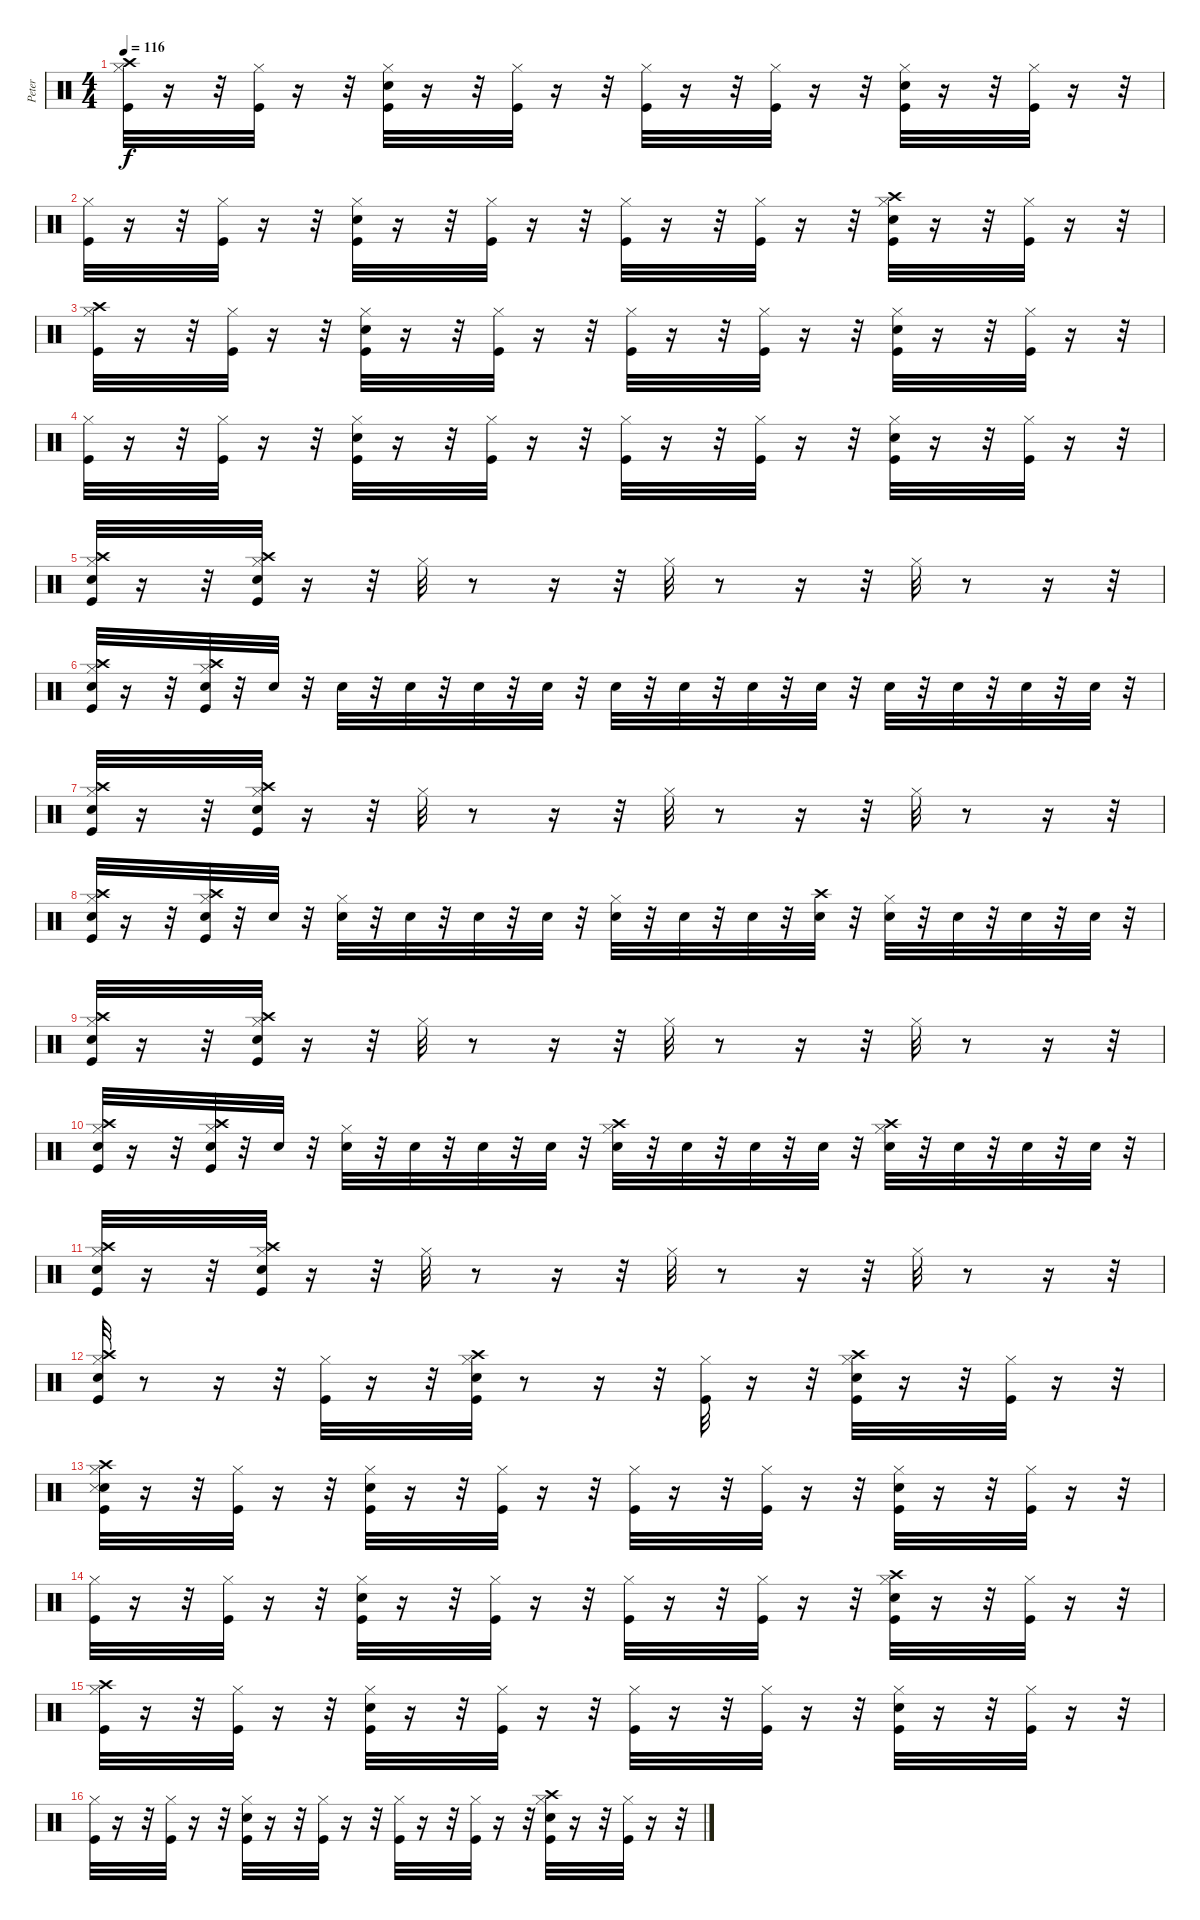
\track ("Peter" "Peter") {instrument percussion}
\staff {score}
\articulation defaults
\ts (4 4)
\tempo 116
\clef neutral
\ks c
("Kick (hit)" "Hi-Hat (closed)" "Crash high (hit)").32{dy f} r.16 r.32 ("Kick (hit)" "Hi-Hat (closed)").32 r.16 r.32 ("Snare (hit) 2" "Kick (hit)" "Hi-Hat (closed)").32 r.16 r.32 ("Kick (hit)" "Hi-Hat (closed)").32 r.16 r.32 ("Kick (hit)" "Hi-Hat (closed)").32 r.16 r.32 ("Hi-Hat (closed)" "Kick (hit)").32 r.16 r.32 ("Snare (hit) 2" "Hi-Hat (closed)" "Kick (hit)").32 r.16 r.32 ("Hi-Hat (closed)" "Kick (hit)").32 r.16 r.32 |
("Hi-Hat (closed)" "Kick (hit)").32 r.16 r.32 ("Hi-Hat (closed)" "Kick (hit)").32 r.16 r.32 ("Hi-Hat (closed)" "Kick (hit)" "Snare (hit) 2").32 r.16 r.32 ("Hi-Hat (closed)" "Kick (hit)").32 r.16 r.32 ("Hi-Hat (closed)" "Kick (hit)").32 r.16 r.32 ("Hi-Hat (closed)" "Kick (hit)").32 r.16 r.32 ("Hi-Hat (closed)" "Kick (hit)" "Crash high (hit)" "Snare (hit) 2").32 r.16 r.32 ("Hi-Hat (closed)" "Kick (hit)").32 r.16 r.32 |
("Hi-Hat (closed)" "Kick (hit)" "Crash high (hit)").32 r.16 r.32 ("Hi-Hat (closed)" "Kick (hit)").32 r.16 r.32 ("Snare (hit) 2" "Hi-Hat (closed)" "Kick (hit)").32 r.16 r.32 ("Hi-Hat (closed)" "Kick (hit)").32 r.16 r.32 ("Hi-Hat (closed)" "Kick (hit)").32 r.16 r.32 ("Hi-Hat (closed)" "Kick (hit)").32 r.16 r.32 ("Snare (hit) 2" "Hi-Hat (closed)" "Kick (hit)").32 r.16 r.32 ("Hi-Hat (closed)" "Kick (hit)").32 r.16 r.32 |
("Hi-Hat (closed)" "Kick (hit)").32 r.16 r.32 ("Hi-Hat (closed)" "Kick (hit)").32 r.16 r.32 ("Hi-Hat (closed)" "Snare (hit) 2" "Kick (hit)").32 r.16 r.32 ("Hi-Hat (closed)" "Kick (hit)").32 r.16 r.32 ("Hi-Hat (closed)" "Kick (hit)").32 r.16 r.32 ("Hi-Hat (closed)" "Kick (hit)").32 r.16 r.32 ("Hi-Hat (closed)" "Snare (hit) 2" "Kick (hit)").32 r.16 r.32 ("Kick (hit)" "Hi-Hat (closed)").32 r.16 r.32 |
("Snare (hit) 2" "Crash high (hit)" "Hi-Hat (closed)" "Kick (hit)").32 r.16 r.32 ("Kick (hit)" "Snare (hit) 2" "Hi-Hat (closed)" "Crash high (hit)").32 r.16 r.32 "Hi-Hat (closed)".32 r.8 r.16 r.32 "Hi-Hat (closed)".32 r.8 r.16 r.32 "Hi-Hat (closed)".32 r.8 r.16 r.32 |
("Kick (hit)" "Snare (hit) 2" "Hi-Hat (closed)" "Crash high (hit)").32 r.16 r.32 ("Kick (hit)" "Snare (hit) 2" "Hi-Hat (closed)" "Crash high (hit)").32 r.32 "Snare (hit) 2".32 r.32 "Snare (hit) 2".32 r.32 "Snare (hit) 2".32 r.32 "Snare (hit) 2".32 r.32 "Snare (hit) 2".32 r.32 "Snare (hit) 2".32 r.32 "Snare (hit) 2".32 r.32 "Snare (hit) 2".32 r.32 "Snare (hit) 2".32 r.32 "Snare (hit) 2".32 r.32 "Snare (hit) 2".32 r.32 "Snare (hit) 2".32 r.32 "Snare (hit) 2".32 r.32 |
("Kick (hit)" "Snare (hit) 2" "Hi-Hat (closed)" "Crash high (hit)").32 r.16 r.32 ("Kick (hit)" "Snare (hit) 2" "Hi-Hat (closed)" "Crash high (hit)").32 r.16 r.32 "Hi-Hat (closed)".32 r.8 r.16 r.32 "Hi-Hat (closed)".32 r.8 r.16 r.32 "Hi-Hat (closed)".32 r.8 r.16 r.32 |
("Crash high (hit)" "Kick (hit)" "Snare (hit) 2" "Hi-Hat (closed)").32 r.16 r.32 ("Crash high (hit)" "Kick (hit)" "Snare (hit) 2" "Hi-Hat (closed)").32 r.32 "Snare (hit) 2".32 r.32 ("Snare (hit) 2" "Hi-Hat (closed)").32 r.32 "Snare (hit) 2".32 r.32 "Snare (hit) 2".32 r.32 "Snare (hit) 2".32 r.32 ("Snare (hit) 2" "Hi-Hat (closed)").32 r.32 "Snare (hit) 2".32 r.32 "Snare (hit) 2".32 r.32 ("Snare (hit) 2" "Crash high (hit)").32 r.32 ("Snare (hit) 2" "Hi-Hat (closed)").32 r.32 "Snare (hit) 2".32 r.32 "Snare (hit) 2".32 r.32 "Snare (hit) 2".32 r.32 |
("Snare (hit) 2" "Kick (hit)" "Crash high (hit)" "Hi-Hat (closed)").32 r.16 r.32 ("Snare (hit) 2" "Kick (hit)" "Hi-Hat (closed)" "Crash high (hit)").32 r.16 r.32 "Hi-Hat (closed)".32 r.8 r.16 r.32 "Hi-Hat (closed)".32 r.8 r.16 r.32 "Hi-Hat (closed)".32 r.8 r.16 r.32 |
("Kick (hit)" "Snare (hit) 2" "Hi-Hat (closed)" "Crash high (hit)").32 r.16 r.32 ("Kick (hit)" "Snare (hit) 2" "Hi-Hat (closed)" "Crash high (hit)").32 r.32 "Snare (hit) 2".32 r.32 ("Snare (hit) 2" "Hi-Hat (closed)").32 r.32 "Snare (hit) 2".32 r.32 "Snare (hit) 2".32 r.32 "Snare (hit) 2".32 r.32 ("Crash high (hit)" "Snare (hit) 2" "Hi-Hat (closed)").32 r.32 "Snare (hit) 2".32 r.32 "Snare (hit) 2".32 r.32 "Snare (hit) 2".32 r.32 ("Crash high (hit)" "Snare (hit) 2" "Hi-Hat (closed)").32 r.32 "Snare (hit) 2".32 r.32 "Snare (hit) 2".32 r.32 "Snare (hit) 2".32 r.32 |
("Kick (hit)" "Snare (hit) 2" "Hi-Hat (closed)" "Crash high (hit)").32 r.16 r.32 ("Kick (hit)" "Snare (hit) 2" "Hi-Hat (closed)" "Crash high (hit)").32 r.16 r.32 "Hi-Hat (closed)".32 r.8 r.16 r.32 "Hi-Hat (closed)".32 r.8 r.16 r.32 "Hi-Hat (closed)".32 r.8 r.16 r.32 |
("Kick (hit)" "Snare (hit) 2" "Hi-Hat (closed)" "Crash high (hit)").32 r.8 r.16 r.32 ("Kick (hit)" "Hi-Hat (closed)").32 r.16 r.32 ("Kick (hit)" "Snare (hit) 2" "Hi-Hat (closed)" "Crash high (hit)").32 r.8 r.16 r.32 ("Kick (hit)" "Hi-Hat (closed)").32 r.16 r.32 ("Kick (hit)" "Snare (hit) 2" "Hi-Hat (closed)" "Crash high (hit)").32 r.16 r.32 ("Kick (hit)" "Hi-Hat (closed)").32 r.16 r.32 |
("Snare (hit) 2" "Snare (side stick) 3" "Kick (hit)" "Crash high (hit)" "Hi-Hat (closed)").32 r.16 r.32 ("Kick (hit)" "Hi-Hat (closed)").32 r.16 r.32 ("Kick (hit)" "Snare (hit) 2" "Hi-Hat (closed)").32 r.16 r.32 ("Kick (hit)" "Hi-Hat (closed)").32 r.16 r.32 ("Kick (hit)" "Hi-Hat (closed)").32 r.16 r.32 ("Kick (hit)" "Hi-Hat (closed)").32 r.16 r.32 ("Kick (hit)" "Snare (hit) 2" "Hi-Hat (closed)").32 r.16 r.32 ("Kick (hit)" "Hi-Hat (closed)").32 r.16 r.32 |
("Kick (hit)" "Hi-Hat (closed)").32 r.16 r.32 ("Kick (hit)" "Hi-Hat (closed)").32 r.16 r.32 ("Kick (hit)" "Snare (hit) 2" "Hi-Hat (closed)").32 r.16 r.32 ("Kick (hit)" "Hi-Hat (closed)").32 r.16 r.32 ("Kick (hit)" "Hi-Hat (closed)").32 r.16 r.32 ("Kick (hit)" "Hi-Hat (closed)").32 r.16 r.32 ("Crash high (hit)" "Kick (hit)" "Snare (hit) 2" "Hi-Hat (closed)").32 r.16 r.32 ("Kick (hit)" "Hi-Hat (closed)").32 r.16 r.32 |
("Hi-Hat (closed)" "Kick (hit)" "Crash high (hit)").32 r.16 r.32 ("Kick (hit)" "Hi-Hat (closed)").32 r.16 r.32 ("Kick (hit)" "Snare (hit) 2" "Hi-Hat (closed)").32 r.16 r.32 ("Kick (hit)" "Hi-Hat (closed)").32 r.16 r.32 ("Kick (hit)" "Hi-Hat (closed)").32 r.16 r.32 ("Kick (hit)" "Hi-Hat (closed)").32 r.16 r.32 ("Kick (hit)" "Snare (hit) 2" "Hi-Hat (closed)").32 r.16 r.32 ("Kick (hit)" "Hi-Hat (closed)").32 r.16 r.32 |
("Kick (hit)" "Hi-Hat (closed)").32 r.16 r.32 ("Kick (hit)" "Hi-Hat (closed)").32 r.16 r.32 ("Kick (hit)" "Snare (hit) 2" "Hi-Hat (closed)").32 r.16 r.32 ("Kick (hit)" "Hi-Hat (closed)").32 r.16 r.32 ("Kick (hit)" "Hi-Hat (closed)").32 r.16 r.32 ("Kick (hit)" "Hi-Hat (closed)").32 r.16 r.32 ("Crash high (hit)" "Snare (hit) 2" "Kick (hit)" "Hi-Hat (closed)").32 r.16 r.32 ("Kick (hit)" "Hi-Hat (closed)").32 r.16 r.32
